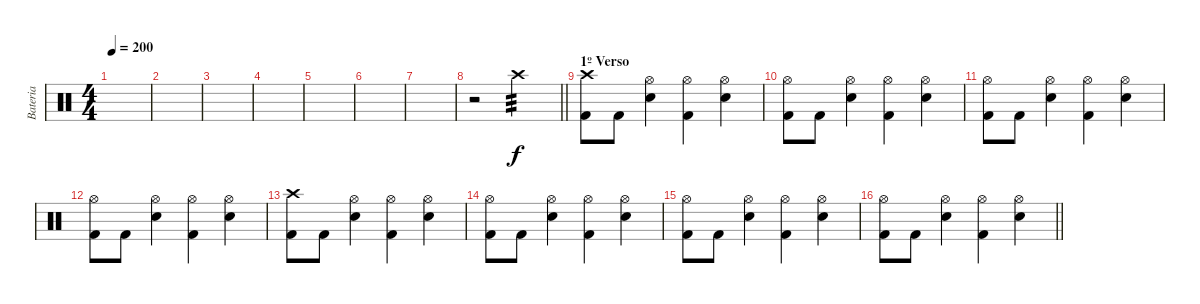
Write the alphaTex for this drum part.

\track ("Bateria" "Bateria") {instrument percussion}
\staff {score}
\articulation defaults
\ts (4 4)
\tempo 200
\clef neutral
\ks c
|
|
|
|
|
|
|
\barLineRight lightlight
r.2 "Crash high (hit)".2{tp 3 volume 16} |
\section ("" "1º Verso")
("Crash high (hit)" "Kick (hit) 2").8 "Kick (hit) 2".8 ("Hi-Hat (open)" "Electric Snare (hit)").4 ("Hi-Hat (open)" "Kick (hit) 2").4 ("Hi-Hat (open)" "Electric Snare (hit)").4 |
("Hi-Hat (open)" "Kick (hit) 2").8 "Kick (hit) 2".8 ("Hi-Hat (open)" "Electric Snare (hit)").4 ("Hi-Hat (open)" "Kick (hit) 2").4 ("Hi-Hat (open)" "Electric Snare (hit)").4 |
("Hi-Hat (open)" "Kick (hit) 2").8 "Kick (hit) 2".8 ("Hi-Hat (open)" "Electric Snare (hit)").4 ("Hi-Hat (open)" "Kick (hit) 2").4 ("Hi-Hat (open)" "Electric Snare (hit)").4 |
("Hi-Hat (open)" "Kick (hit) 2").8 "Kick (hit) 2".8 ("Hi-Hat (open)" "Electric Snare (hit)").4 ("Hi-Hat (open)" "Kick (hit) 2").4 ("Hi-Hat (open)" "Electric Snare (hit)").4 |
("Crash high (hit)" "Kick (hit) 2").8 "Kick (hit) 2".8 ("Hi-Hat (open)" "Electric Snare (hit)").4 ("Hi-Hat (open)" "Kick (hit) 2").4 ("Hi-Hat (open)" "Electric Snare (hit)").4 |
("Hi-Hat (open)" "Kick (hit) 2").8 "Kick (hit) 2".8 ("Hi-Hat (open)" "Electric Snare (hit)").4 ("Hi-Hat (open)" "Kick (hit) 2").4 ("Hi-Hat (open)" "Electric Snare (hit)").4 |
("Hi-Hat (open)" "Kick (hit) 2").8 "Kick (hit) 2".8 ("Hi-Hat (open)" "Electric Snare (hit)").4 ("Hi-Hat (open)" "Kick (hit) 2").4 ("Hi-Hat (open)" "Electric Snare (hit)").4 |
\barLineRight lightlight
("Hi-Hat (open)" "Kick (hit) 2").8 "Kick (hit) 2".8 ("Hi-Hat (open)" "Electric Snare (hit)").4 ("Hi-Hat (open)" "Kick (hit) 2").4 ("Hi-Hat (open)" "Electric Snare (hit)").4
